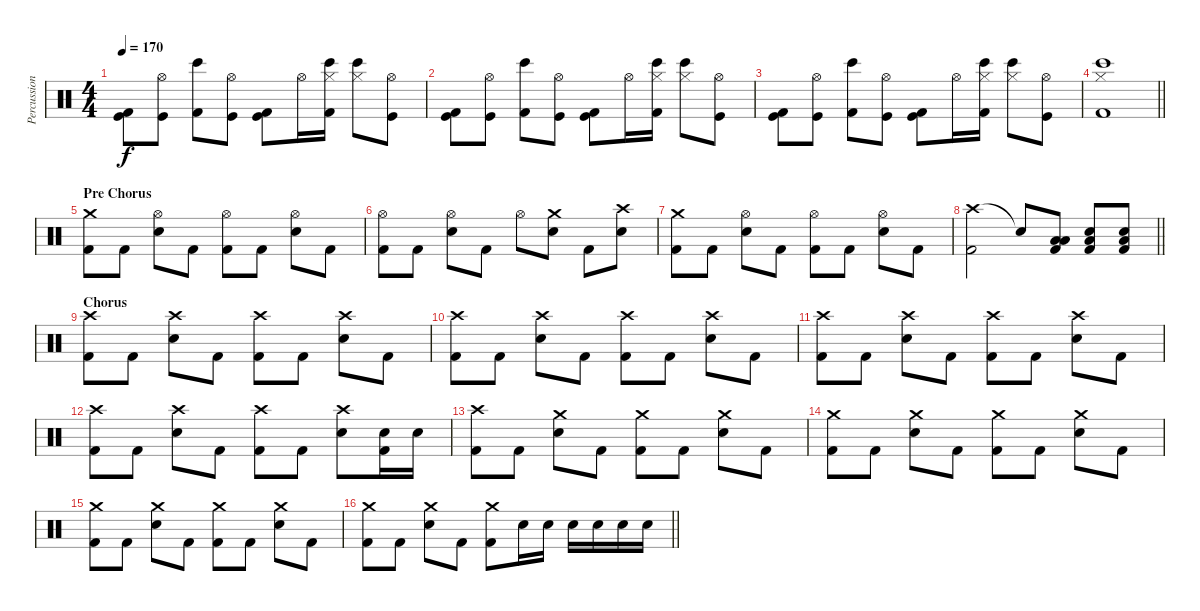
\track ("Percussion" "Percussion") {instrument percussion}
\staff {score}
\articulation defaults
\ts (4 4)
\tempo 170
\clef neutral
\ks c
("Kick (hit)" "Kick (hit) 2").8{dy f} ("Hi-Hat (open)" "Kick (hit)").8 ("Bongo High (hit)" "Kick (hit) 2").8 ("Hi-Hat (open)" "Kick (hit)").8 ("Kick (hit)" "Kick (hit) 2").8 "Hi-Hat (open)".16 ("Bongo High (hit)" "Hi-Hat (closed)" "Kick (hit) 2").16 ("Bongo High (hit)" "Hi-Hat (closed)").8 ("Hi-Hat (open)" "Kick (hit)").8 |
("Kick (hit)" "Kick (hit) 2").8 ("Hi-Hat (open)" "Kick (hit)").8 ("Bongo High (hit)" "Kick (hit) 2").8 ("Hi-Hat (open)" "Kick (hit)").8 ("Kick (hit)" "Kick (hit) 2").8 "Hi-Hat (open)".16 ("Bongo High (hit)" "Hi-Hat (closed)" "Kick (hit) 2").16 ("Bongo High (hit)" "Hi-Hat (closed)").8 ("Hi-Hat (open)" "Kick (hit)").8 |
("Kick (hit)" "Kick (hit) 2").8 ("Hi-Hat (open)" "Kick (hit)").8 ("Bongo High (hit)" "Kick (hit) 2").8 ("Hi-Hat (open)" "Kick (hit)").8 ("Kick (hit)" "Kick (hit) 2").8 "Hi-Hat (open)".16 ("Bongo High (hit)" "Hi-Hat (closed)" "Kick (hit) 2").16 ("Bongo High (hit)" "Hi-Hat (closed)").8 ("Hi-Hat (open)" "Kick (hit)").8 |
\barLineRight lightlight
("Bongo High (hit)" "Hi-Hat (closed)" "Kick (hit) 2").1 |
\section ("" "Pre Chorus")
("Crash medium (hit)" "Kick (hit) 2").8 "Kick (hit) 2".8 ("Hi-Hat (open)" "Electric Snare (hit)").8 "Kick (hit) 2".8 ("Hi-Hat (open)" "Kick (hit) 2").8 "Kick (hit) 2".8 ("Hi-Hat (open)" "Electric Snare (hit)").8 "Kick (hit) 2".8 |
("Hi-Hat (open)" "Kick (hit) 2").8 "Kick (hit) 2".8 ("Hi-Hat (open)" "Electric Snare (hit)").8 "Kick (hit) 2".8 "Hi-Hat (open)".8 ("Crash medium (hit)" "Electric Snare (hit)").8 "Kick (hit) 2".8 ("Crash high (hit)" "Electric Snare (hit)").8 |
("Crash medium (hit)" "Kick (hit) 2").8 "Kick (hit) 2".8 ("Hi-Hat (open)" "Electric Snare (hit)").8 "Kick (hit) 2".8 ("Hi-Hat (open)" "Kick (hit) 2").8 "Kick (hit) 2".8 ("Hi-Hat (open)" "Electric Snare (hit)").8 "Kick (hit) 2".8 |
\barLineRight lightlight
("Crash high (hit)" "Kick (hit) 2").2 "Snare (hit)"{t}.8 ("Kick (hit) 2" "Low Tom (hit)" "Low Floor Tom (hit)").8 ("Kick (hit) 2" "Electric Snare (hit)" "Low Floor Tom (hit)").8 ("Kick (hit) 2" "Electric Snare (hit)" "Low Floor Tom (hit)").8 |
\section ("" "Chorus")
("Crash high (hit)" "Kick (hit) 2").8 "Kick (hit) 2".8 ("Crash high (hit)" "Electric Snare (hit)").8 "Kick (hit) 2".8 ("Crash high (hit)" "Kick (hit) 2").8 "Kick (hit) 2".8 ("Crash high (hit)" "Electric Snare (hit)").8 "Kick (hit) 2".8 |
("Crash high (hit)" "Kick (hit) 2").8 "Kick (hit) 2".8 ("Crash high (hit)" "Electric Snare (hit)").8 "Kick (hit) 2".8 ("Crash high (hit)" "Kick (hit) 2").8 "Kick (hit) 2".8 ("Crash high (hit)" "Electric Snare (hit)").8 "Kick (hit) 2".8 |
("Crash high (hit)" "Kick (hit) 2").8 "Kick (hit) 2".8 ("Crash high (hit)" "Electric Snare (hit)").8 "Kick (hit) 2".8 ("Crash high (hit)" "Kick (hit) 2").8 "Kick (hit) 2".8 ("Crash high (hit)" "Electric Snare (hit)").8 "Kick (hit) 2".8 |
("Crash high (hit)" "Kick (hit) 2").8 "Kick (hit) 2".8 ("Crash high (hit)" "Electric Snare (hit)").8 "Kick (hit) 2".8 ("Crash high (hit)" "Kick (hit) 2").8 "Kick (hit) 2".8 ("Crash high (hit)" "Electric Snare (hit)").8 ("Kick (hit) 2" "Electric Snare (hit)").16 "Electric Snare (hit)".16 |
("Crash high (hit)" "Kick (hit) 2").8 "Kick (hit) 2".8 ("Crash medium (hit)" "Electric Snare (hit)").8 "Kick (hit) 2".8 ("Crash medium (hit)" "Kick (hit) 2").8 "Kick (hit) 2".8 ("Crash medium (hit)" "Electric Snare (hit)").8 "Kick (hit) 2".8 |
("Crash medium (hit)" "Kick (hit) 2").8 "Kick (hit) 2".8 ("Crash medium (hit)" "Electric Snare (hit)").8 "Kick (hit) 2".8 ("Crash medium (hit)" "Kick (hit) 2").8 "Kick (hit) 2".8 ("Crash medium (hit)" "Electric Snare (hit)").8 "Kick (hit) 2".8 |
("Crash medium (hit)" "Kick (hit) 2").8 "Kick (hit) 2".8 ("Crash medium (hit)" "Electric Snare (hit)").8 "Kick (hit) 2".8 ("Crash medium (hit)" "Kick (hit) 2").8 "Kick (hit) 2".8 ("Crash medium (hit)" "Electric Snare (hit)").8 "Kick (hit) 2".8 |
\barLineRight lightlight
("Crash medium (hit)" "Kick (hit) 2").8 "Kick (hit) 2".8 ("Crash medium (hit)" "Electric Snare (hit)").8 "Kick (hit) 2".8 ("Crash medium (hit)" "Kick (hit) 2").8 "Electric Snare (hit)".16 "Electric Snare (hit)".16 "Electric Snare (hit)".16 "Electric Snare (hit)".16 "Electric Snare (hit)".16 "Electric Snare (hit)".16
